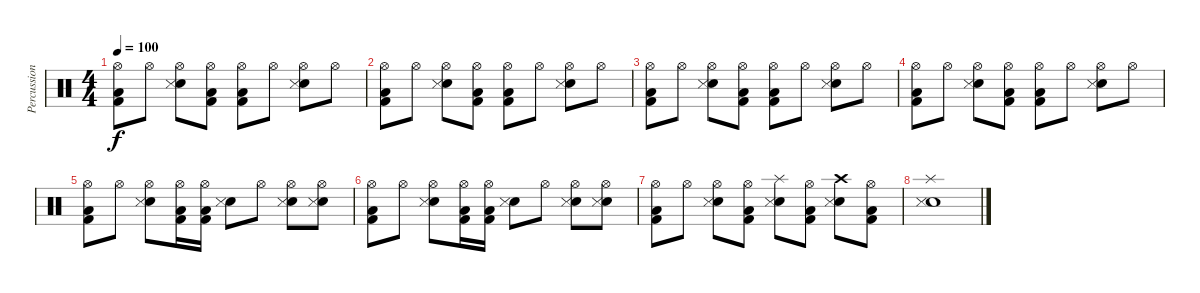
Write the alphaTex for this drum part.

\track ("Percussions" "Percussion") {instrument percussion}
\staff {score}
\articulation defaults
\ts (4 4)
\tempo 100
\clef neutral
\ks c
("Hi-Hat (open)" "Kick (hit) 2" "Low Floor Tom (hit)").8{dy f} "Hi-Hat (open)".8 ("Hi-Hat (open)" "Snare (hit) 2" "Snare (side stick) 3").8 ("Hi-Hat (open)" "Kick (hit) 2" "Low Floor Tom (hit)").8 ("Hi-Hat (open)" "Kick (hit) 2" "Low Floor Tom (hit)").8 "Hi-Hat (open)".8 ("Hi-Hat (open)" "Snare (hit) 2" "Snare (side stick) 3").8 "Hi-Hat (open)".8 |
("Hi-Hat (open)" "Kick (hit) 2" "Low Floor Tom (hit)").8 "Hi-Hat (open)".8 ("Hi-Hat (open)" "Snare (hit) 2" "Snare (side stick) 3").8 ("Hi-Hat (open)" "Kick (hit) 2" "Low Floor Tom (hit)").8 ("Hi-Hat (open)" "Kick (hit) 2" "Low Floor Tom (hit)").8 "Hi-Hat (open)".8 ("Hi-Hat (open)" "Snare (hit) 2" "Snare (side stick) 3").8 "Hi-Hat (open)".8 |
("Hi-Hat (open)" "Kick (hit) 2" "Low Floor Tom (hit)").8 "Hi-Hat (open)".8 ("Hi-Hat (open)" "Snare (hit) 2" "Snare (side stick) 3").8 ("Hi-Hat (open)" "Kick (hit) 2" "Low Floor Tom (hit)").8 ("Hi-Hat (open)" "Kick (hit) 2" "Low Floor Tom (hit)").8 "Hi-Hat (open)".8 ("Hi-Hat (open)" "Snare (hit) 2" "Snare (side stick) 3").8 "Hi-Hat (open)".8 |
("Hi-Hat (open)" "Kick (hit) 2" "Low Floor Tom (hit)").8 "Hi-Hat (open)".8 ("Hi-Hat (open)" "Snare (hit) 2" "Snare (side stick) 3").8 ("Hi-Hat (open)" "Kick (hit) 2" "Low Floor Tom (hit)").8 ("Hi-Hat (open)" "Kick (hit) 2" "Low Floor Tom (hit)").8 "Hi-Hat (open)".8 ("Hi-Hat (open)" "Snare (hit) 2" "Snare (side stick) 3").8 "Hi-Hat (open)".8 |
("Hi-Hat (open)" "Kick (hit) 2" "Low Floor Tom (hit)").8 "Hi-Hat (open)".8 ("Hi-Hat (open)" "Snare (hit) 2" "Snare (side stick) 3").8 ("Hi-Hat (open)" "Kick (hit) 2" "Low Floor Tom (hit)").16 ("Hi-Hat (open)" "Kick (hit) 2" "Low Floor Tom (hit)").16 ("Snare (hit) 2" "Snare (side stick) 3").8 "Hi-Hat (open)".8 ("Hi-Hat (open)" "Snare (hit) 2" "Snare (side stick) 3").8 ("Hi-Hat (open)" "Snare (hit) 2" "Snare (side stick) 3").8 |
("Hi-Hat (open)" "Kick (hit) 2" "Low Floor Tom (hit)").8 "Hi-Hat (open)".8 ("Hi-Hat (open)" "Snare (hit) 2" "Snare (side stick) 3").8 ("Hi-Hat (open)" "Kick (hit) 2" "Low Floor Tom (hit)").16 ("Hi-Hat (open)" "Kick (hit) 2" "Low Floor Tom (hit)").16 ("Snare (hit) 2" "Snare (side stick) 3").8 "Hi-Hat (open)".8 ("Hi-Hat (open)" "Snare (hit) 2" "Snare (side stick) 3").8 ("Hi-Hat (open)" "Snare (hit) 2" "Snare (side stick) 3").8 |
("Hi-Hat (open)" "Kick (hit) 2" "Low Floor Tom (hit)").8 "Hi-Hat (open)".8 ("Hi-Hat (open)" "Snare (hit) 2" "Snare (side stick) 3").8 ("Hi-Hat (open)" "Kick (hit) 2" "Low Floor Tom (hit)").8 ("Splash (hit)" "Snare (hit) 2" "Snare (side stick) 3").8 ("Hi-Hat (open)" "Kick (hit) 2" "Low Floor Tom (hit)").8 ("Crash high (hit)" "Snare (hit) 2" "Snare (side stick) 3").8 ("Hi-Hat (open)" "Kick (hit) 2" "Low Floor Tom (hit)").8 |
("Splash (hit)" "Snare (hit) 2" "Snare (side stick) 3").1
